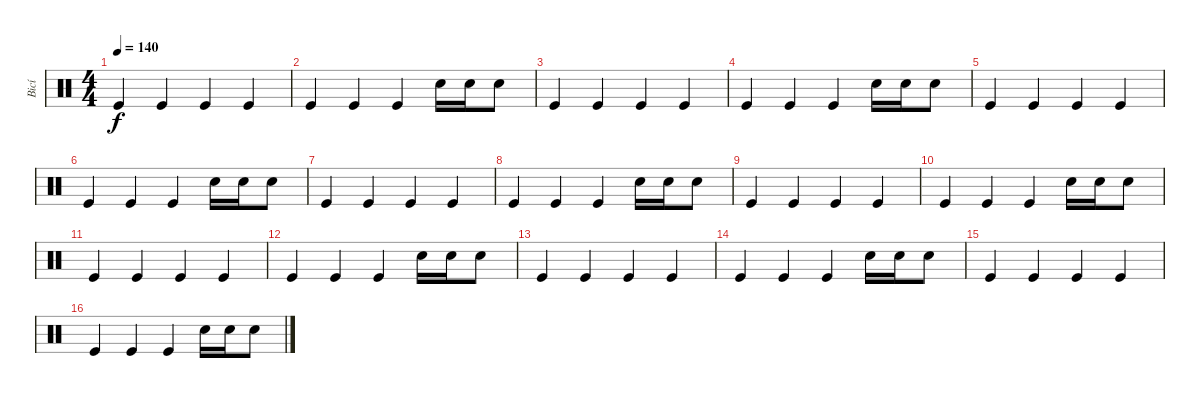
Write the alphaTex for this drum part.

\track ("Bicí" "Bicí") {instrument percussion}
\staff {score}
\articulation defaults
\ts (4 4)
\tempo 140
\clef neutral
\ks c "Kick (hit)".4{dy f} "Kick (hit)".4 "Kick (hit)".4 "Kick (hit)".4
|
"Kick (hit)".4 "Kick (hit)".4 "Kick (hit)".4 "Electric Snare (hit)".16 "Electric Snare (hit)".16 "Electric Snare (hit)".8 |
"Kick (hit)".4 "Kick (hit)".4 "Kick (hit)".4 "Kick (hit)".4 |
"Kick (hit)".4 "Kick (hit)".4 "Kick (hit)".4 "Electric Snare (hit)".16 "Electric Snare (hit)".16 "Electric Snare (hit)".8 |
"Kick (hit)".4 "Kick (hit)".4 "Kick (hit)".4 "Kick (hit)".4 |
"Kick (hit)".4 "Kick (hit)".4 "Kick (hit)".4 "Electric Snare (hit)".16 "Electric Snare (hit)".16 "Electric Snare (hit)".8 |
"Kick (hit)".4 "Kick (hit)".4 "Kick (hit)".4 "Kick (hit)".4 |
"Kick (hit)".4 "Kick (hit)".4 "Kick (hit)".4 "Electric Snare (hit)".16 "Electric Snare (hit)".16 "Electric Snare (hit)".8 |
"Kick (hit)".4 "Kick (hit)".4 "Kick (hit)".4 "Kick (hit)".4 |
"Kick (hit)".4 "Kick (hit)".4 "Kick (hit)".4 "Electric Snare (hit)".16 "Electric Snare (hit)".16 "Electric Snare (hit)".8 |
"Kick (hit)".4 "Kick (hit)".4 "Kick (hit)".4 "Kick (hit)".4 |
"Kick (hit)".4 "Kick (hit)".4 "Kick (hit)".4 "Electric Snare (hit)".16 "Electric Snare (hit)".16 "Electric Snare (hit)".8 |
"Kick (hit)".4 "Kick (hit)".4 "Kick (hit)".4 "Kick (hit)".4 |
"Kick (hit)".4 "Kick (hit)".4 "Kick (hit)".4 "Electric Snare (hit)".16 "Electric Snare (hit)".16 "Electric Snare (hit)".8 |
"Kick (hit)".4 "Kick (hit)".4 "Kick (hit)".4 "Kick (hit)".4 |
"Kick (hit)".4 "Kick (hit)".4 "Kick (hit)".4 "Electric Snare (hit)".16 "Electric Snare (hit)".16 "Electric Snare (hit)".8
